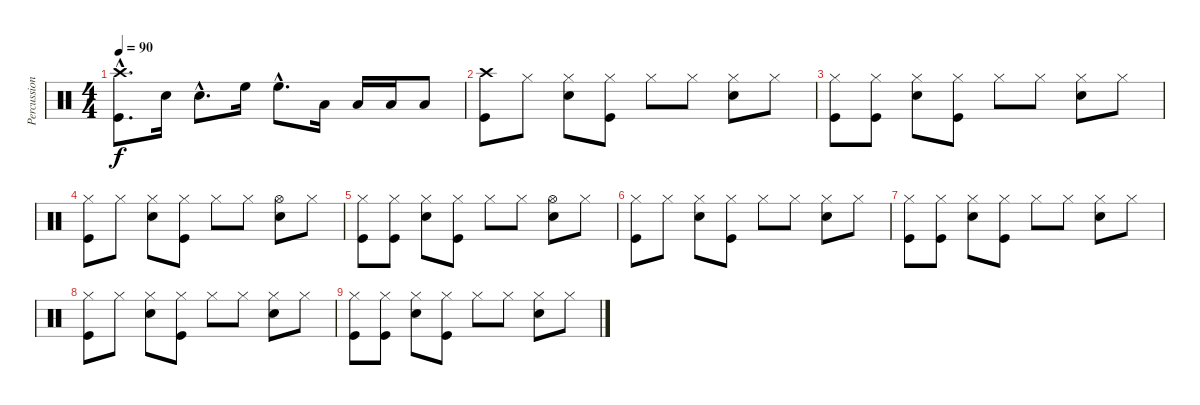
\track ("Percussion" "Percussion") {instrument percussion}
\staff {score}
\articulation defaults
\ts (4 4)
\tempo 90
\clef neutral
\ks c
("Crash high (hit)"{hac} "Kick (hit)"{hac}).8{d dy f} "Snare (hit) 2".16 "Snare (hit) 2"{hac}.8{d} "High Floor Tom (hit)".16 "High Floor Tom (hit)"{hac}.8{d} "Low Floor Tom (hit)".16 "Low Floor Tom (hit)".16 "Low Floor Tom (hit)".16 "Low Floor Tom (hit)".8 |
("Crash high (hit)" "Kick (hit)").8 "Hi-Hat (closed)".8 ("Hi-Hat (closed)" "Snare (hit) 2").8 ("Hi-Hat (closed)" "Kick (hit)").8 "Hi-Hat (closed)".8 "Hi-Hat (closed)".8 ("Hi-Hat (closed)" "Snare (hit) 2").8 "Hi-Hat (closed)".8 |
("Hi-Hat (closed)" "Kick (hit)").8 ("Hi-Hat (closed)" "Kick (hit)").8 ("Hi-Hat (closed)" "Snare (hit) 2").8 ("Hi-Hat (closed)" "Kick (hit)").8 "Hi-Hat (closed)".8 "Hi-Hat (closed)".8 ("Hi-Hat (closed)" "Snare (hit) 2").8 "Hi-Hat (closed)".8 |
("Hi-Hat (closed)" "Kick (hit)").8 "Hi-Hat (closed)".8 ("Hi-Hat (closed)" "Snare (hit) 2").8 ("Hi-Hat (closed)" "Kick (hit)").8 "Hi-Hat (closed)".8 "Hi-Hat (closed)".8 ("Hi-Hat (open)" "Snare (hit) 2").8 "Hi-Hat (closed)".8 |
("Hi-Hat (closed)" "Kick (hit)").8 ("Hi-Hat (closed)" "Kick (hit)").8 ("Hi-Hat (closed)" "Snare (hit) 2").8 ("Hi-Hat (closed)" "Kick (hit)").8 "Hi-Hat (closed)".8 "Hi-Hat (closed)".8 ("Hi-Hat (open)" "Snare (hit) 2").8 "Hi-Hat (closed)".8 |
("Hi-Hat (closed)" "Kick (hit)").8 "Hi-Hat (closed)".8 ("Hi-Hat (closed)" "Snare (hit) 2").8 ("Hi-Hat (closed)" "Kick (hit)").8 "Hi-Hat (closed)".8 "Hi-Hat (closed)".8 ("Hi-Hat (closed)" "Snare (hit) 2").8 "Hi-Hat (closed)".8 |
("Hi-Hat (closed)" "Kick (hit)").8 ("Hi-Hat (closed)" "Kick (hit)").8 ("Hi-Hat (closed)" "Snare (hit) 2").8 ("Hi-Hat (closed)" "Kick (hit)").8 "Hi-Hat (closed)".8 "Hi-Hat (closed)".8 ("Hi-Hat (closed)" "Snare (hit) 2").8 "Hi-Hat (closed)".8 |
("Hi-Hat (closed)" "Kick (hit)").8 "Hi-Hat (closed)".8 ("Hi-Hat (closed)" "Snare (hit) 2").8 ("Hi-Hat (closed)" "Kick (hit)").8 "Hi-Hat (closed)".8 "Hi-Hat (closed)".8 ("Hi-Hat (closed)" "Snare (hit) 2").8 "Hi-Hat (closed)".8 |
("Hi-Hat (closed)" "Kick (hit)").8{volume 0} ("Hi-Hat (closed)" "Kick (hit)").8 ("Hi-Hat (closed)" "Snare (hit) 2").8 ("Hi-Hat (closed)" "Kick (hit)").8 "Hi-Hat (closed)".8 "Hi-Hat (closed)".8 ("Hi-Hat (closed)" "Snare (hit) 2").8 "Hi-Hat (closed)".8
